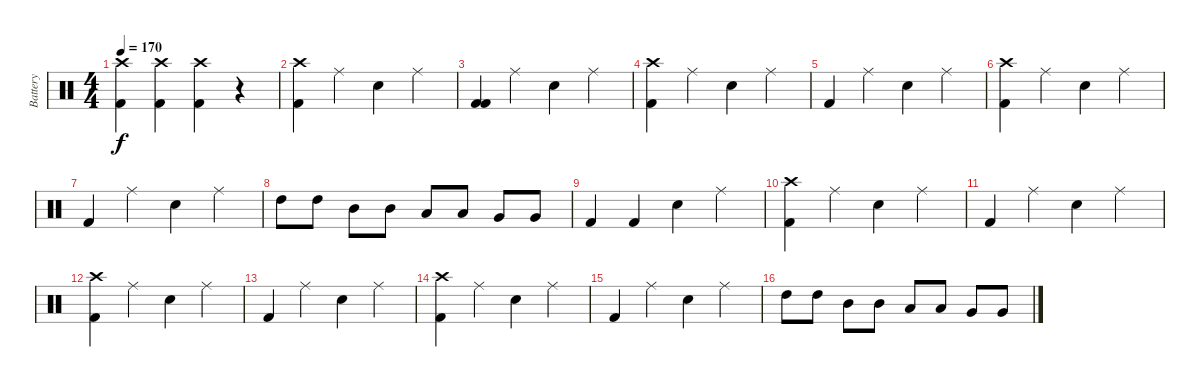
\track ("Battery" "Battery") {instrument percussion}
\staff {score}
\articulation defaults
\ts (4 4)
\tempo 170
\clef neutral
\ks c
("Kick (hit) 2" "Crash high (hit)").4{dy f} ("Kick (hit) 2" "Crash high (hit)").4 ("Kick (hit) 2" "Crash high (hit)").4 r.4 |
("Kick (hit) 2" "Crash high (hit)").4 "Ride (middle)".4 "Snare (hit) 2".4 "Ride (middle)".4 |
("Kick (hit) 2" "Kick (hit) 2").4 "Ride (middle)".4 "Snare (hit) 2".4 "Ride (middle)".4 |
("Kick (hit) 2" "Crash high (hit)").4 "Ride (middle)".4 "Snare (hit) 2".4 "Ride (middle)".4 |
"Kick (hit) 2".4 "Ride (middle)".4 "Snare (hit) 2".4 "Ride (middle)".4 |
("Kick (hit) 2" "Crash high (hit)").4 "Ride (middle)".4 "Snare (hit) 2".4 "Ride (middle)".4 |
"Kick (hit) 2".4 "Ride (middle)".4 "Snare (hit) 2".4 "Ride (middle)".4 |
"High Tom (hit)".8 "High Tom (hit)".8 "Mid Tom (hit)".8 "Mid Tom (hit)".8 "Low Tom (hit)".8 "Low Tom (hit)".8 "Very Low Tom (hit)".8 "Very Low Tom (hit)".8 |
"Kick (hit) 2".4 "Kick (hit) 2".4 "Snare (hit) 2".4 "Ride (middle)".4 |
("Kick (hit) 2" "Crash high (hit)").4 "Ride (middle)".4 "Snare (hit) 2".4 "Ride (middle)".4 |
"Kick (hit) 2".4 "Ride (middle)".4 "Snare (hit) 2".4 "Ride (middle)".4 |
("Kick (hit) 2" "Crash high (hit)").4 "Ride (middle)".4 "Snare (hit) 2".4 "Ride (middle)".4 |
"Kick (hit) 2".4 "Ride (middle)".4 "Snare (hit) 2".4 "Ride (middle)".4 |
("Kick (hit) 2" "Crash high (hit)").4 "Ride (middle)".4 "Snare (hit) 2".4 "Ride (middle)".4 |
"Kick (hit) 2".4 "Ride (middle)".4 "Snare (hit) 2".4 "Ride (middle)".4 |
"High Tom (hit)".8 "High Tom (hit)".8 "Mid Tom (hit)".8 "Mid Tom (hit)".8 "Low Tom (hit)".8 "Low Tom (hit)".8 "Very Low Tom (hit)".8 "Very Low Tom (hit)".8
